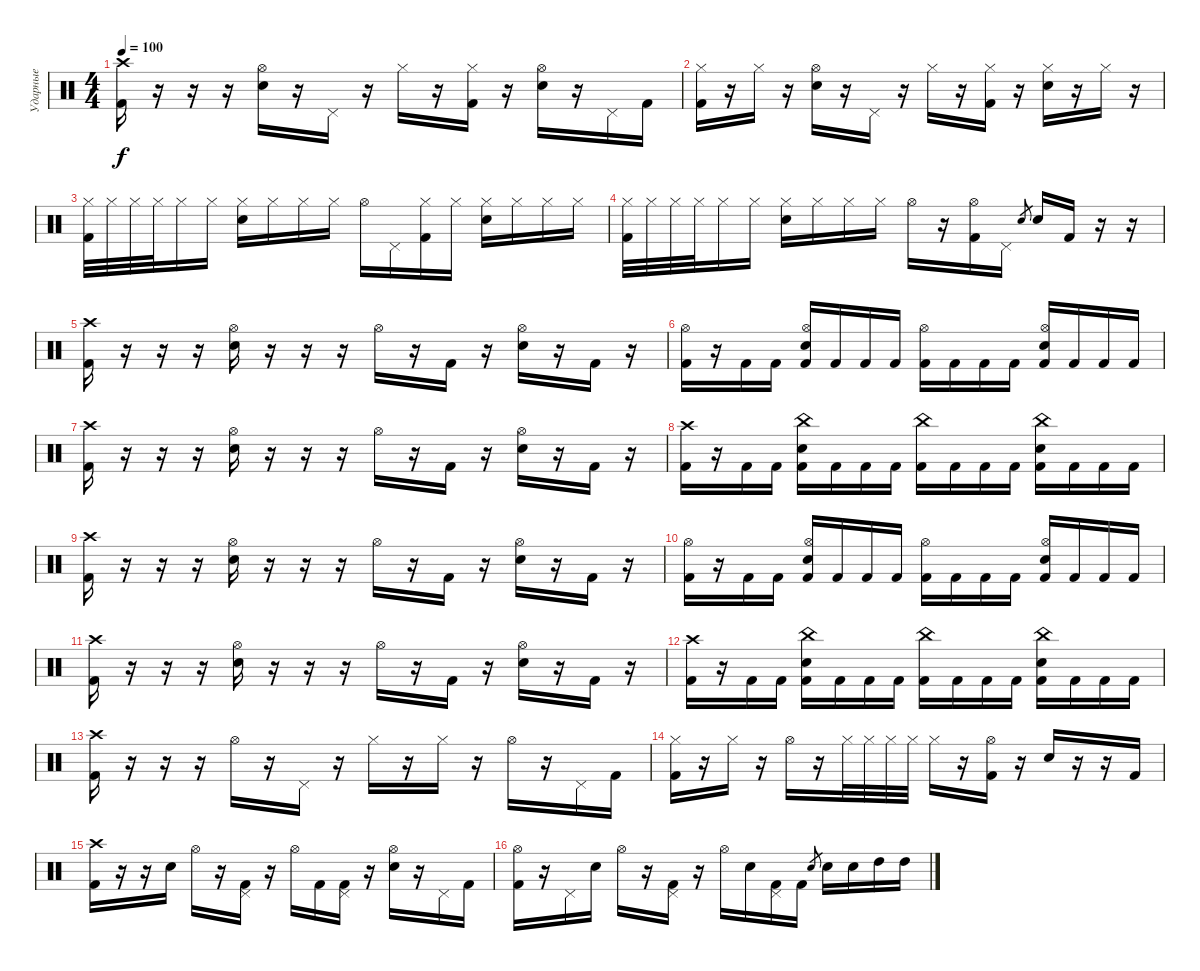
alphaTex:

\track ("Ударные" "Ударные") {instrument percussion}
\staff {score}
\articulation defaults
\ts (4 4)
\tempo 100
\clef neutral
\ks c
("Crash high (hit)" "Kick (hit) 2").16{dy f} r.16 r.16 r.16 ("Hi-Hat (open)" "Electric Snare (hit)").16 r.16 "Pedal Hi-Hat (hit)".16 r.16 "Hi-Hat (closed)".16 r.16 ("Hi-Hat (closed)" "Kick (hit) 2").16 r.16 ("Hi-Hat (open)" "Electric Snare (hit)").16 r.16 "Pedal Hi-Hat (hit)".16 "Kick (hit) 2".16 |
("Hi-Hat (closed)" "Kick (hit) 2").16 r.16 "Hi-Hat (closed)".16 r.16 ("Hi-Hat (open)" "Electric Snare (hit)").16 r.16 "Pedal Hi-Hat (hit)".16 r.16 "Hi-Hat (closed)".16 r.16 ("Hi-Hat (closed)" "Kick (hit) 2").16 r.16 ("Hi-Hat (closed)" "Electric Snare (hit)").16 r.16 "Hi-Hat (closed)".16 r.16 |
("Hi-Hat (closed)" "Kick (hit) 2").32 "Hi-Hat (closed)".32 "Hi-Hat (closed)".32 "Hi-Hat (closed)".32 "Hi-Hat (closed)".16 "Hi-Hat (closed)".16 ("Hi-Hat (closed)" "Electric Snare (hit)").16 "Hi-Hat (closed)".16 "Hi-Hat (closed)".16 "Hi-Hat (closed)".16 "Hi-Hat (open)".16 "Pedal Hi-Hat (hit)".16 ("Hi-Hat (closed)" "Kick (hit) 2").16 "Hi-Hat (closed)".16 ("Hi-Hat (closed)" "Electric Snare (hit)").16 "Hi-Hat (closed)".16 "Hi-Hat (closed)".16 "Hi-Hat (closed)".16 |
("Hi-Hat (closed)" "Kick (hit) 2").32 "Hi-Hat (closed)".32 "Hi-Hat (closed)".32 "Hi-Hat (closed)".32 "Hi-Hat (closed)".16 "Hi-Hat (closed)".16 ("Hi-Hat (closed)" "Electric Snare (hit)").16 "Hi-Hat (closed)".16 "Hi-Hat (closed)".16 "Hi-Hat (closed)".16 "Hi-Hat (open)".16 r.16 ("Hi-Hat (open)" "Kick (hit) 2").16 "Pedal Hi-Hat (hit)".16 "Electric Snare (hit)".8{gr} "Electric Snare (hit)".16 "Kick (hit) 2".16 r.16 r.16 |
("Crash high (hit)" "Kick (hit) 2").16 r.16 r.16 r.16 ("Hi-Hat (open)" "Electric Snare (hit)").16 r.16 r.16 r.16 "Hi-Hat (open)".16 r.16 "Kick (hit) 2".16 r.16 ("Hi-Hat (open)" "Electric Snare (hit)").16 r.16 "Kick (hit) 2".16 r.16 |
("Hi-Hat (open)" "Kick (hit) 2").16 r.16 "Kick (hit) 2".16 "Kick (hit) 2".16 ("Hi-Hat (open)" "Electric Snare (hit)" "Kick (hit) 2").16 "Kick (hit) 2".16 "Kick (hit) 2".16 "Kick (hit) 2".16 ("Hi-Hat (open)" "Kick (hit) 2").16 "Kick (hit) 2".16 "Kick (hit) 2".16 "Kick (hit) 2".16 ("Hi-Hat (open)" "Electric Snare (hit)" "Kick (hit) 2").16 "Kick (hit) 2".16 "Kick (hit) 2".16 "Kick (hit) 2".16 |
("Crash high (hit)" "Kick (hit) 2").16 r.16 r.16 r.16 ("Hi-Hat (open)" "Electric Snare (hit)").16 r.16 r.16 r.16 "Hi-Hat (open)".16 r.16 "Kick (hit) 2".16 r.16 ("Hi-Hat (open)" "Electric Snare (hit)").16 r.16 "Kick (hit) 2".16 r.16 |
("Crash high (hit)" "Kick (hit) 2").16 r.16 "Kick (hit) 2".16 "Kick (hit) 2".16 ("China (hit)" "Electric Snare (hit)" "Kick (hit) 2").16 "Kick (hit) 2".16 "Kick (hit) 2".16 "Kick (hit) 2".16 ("China (hit)" "Kick (hit) 2").16 "Kick (hit) 2".16 "Kick (hit) 2".16 "Kick (hit) 2".16 ("China (hit)" "Electric Snare (hit)" "Kick (hit) 2").16 "Kick (hit) 2".16 "Kick (hit) 2".16 "Kick (hit) 2".16 |
("Crash high (hit)" "Kick (hit) 2").16 r.16 r.16 r.16 ("Hi-Hat (open)" "Electric Snare (hit)").16 r.16 r.16 r.16 "Hi-Hat (open)".16 r.16 "Kick (hit) 2".16 r.16 ("Hi-Hat (open)" "Electric Snare (hit)").16 r.16 "Kick (hit) 2".16 r.16 |
("Hi-Hat (open)" "Kick (hit) 2").16 r.16 "Kick (hit) 2".16 "Kick (hit) 2".16 ("Hi-Hat (open)" "Electric Snare (hit)" "Kick (hit) 2").16 "Kick (hit) 2".16 "Kick (hit) 2".16 "Kick (hit) 2".16 ("Hi-Hat (open)" "Kick (hit) 2").16 "Kick (hit) 2".16 "Kick (hit) 2".16 "Kick (hit) 2".16 ("Hi-Hat (open)" "Electric Snare (hit)" "Kick (hit) 2").16 "Kick (hit) 2".16 "Kick (hit) 2".16 "Kick (hit) 2".16 |
("Crash high (hit)" "Kick (hit) 2").16 r.16 r.16 r.16 ("Hi-Hat (open)" "Electric Snare (hit)").16 r.16 r.16 r.16 "Hi-Hat (open)".16 r.16 "Kick (hit) 2".16 r.16 ("Hi-Hat (open)" "Electric Snare (hit)").16 r.16 "Kick (hit) 2".16 r.16 |
("Crash high (hit)" "Kick (hit) 2").16 r.16 "Kick (hit) 2".16 "Kick (hit) 2".16 ("China (hit)" "Electric Snare (hit)" "Kick (hit) 2").16 "Kick (hit) 2".16 "Kick (hit) 2".16 "Kick (hit) 2".16 ("China (hit)" "Kick (hit) 2").16 "Kick (hit) 2".16 "Kick (hit) 2".16 "Kick (hit) 2".16 ("China (hit)" "Electric Snare (hit)" "Kick (hit) 2").16 "Kick (hit) 2".16 "Kick (hit) 2".16 "Kick (hit) 2".16 |
("Crash high (hit)" "Kick (hit) 2").16 r.16 r.16 r.16 "Hi-Hat (open)".16 r.16 "Pedal Hi-Hat (hit)".16 r.16 "Hi-Hat (closed)".16 r.16 "Hi-Hat (closed)".16 r.16 "Hi-Hat (open)".16 r.16 "Pedal Hi-Hat (hit)".16 "Kick (hit) 2".16 |
("Hi-Hat (closed)" "Kick (hit) 2").16 r.16 "Hi-Hat (closed)".16 r.16 "Hi-Hat (open)".16 r.16 "Hi-Hat (closed)".32 "Hi-Hat (closed)".32 "Hi-Hat (closed)".32 "Hi-Hat (closed)".32 "Hi-Hat (closed)".16 r.16 ("Hi-Hat (open)" "Kick (hit) 2").16 r.16 "Electric Snare (hit)".16 r.16 r.16 "Kick (hit) 2".16 |
("Crash high (hit)" "Kick (hit) 2").16 r.16 r.16 "Electric Snare (hit)".16 "Hi-Hat (open)".16 r.16 ("Pedal Hi-Hat (hit)" "Kick (hit) 2").16 r.16 "Hi-Hat (open)".16 "Kick (hit) 2".16 ("Pedal Hi-Hat (hit)" "Kick (hit) 2").16 r.16 ("Hi-Hat (open)" "Electric Snare (hit)").16 r.16 "Pedal Hi-Hat (hit)".16 "Kick (hit) 2".16 |
("Hi-Hat (open)" "Kick (hit) 2").16 r.16 "Pedal Hi-Hat (hit)".16 "Electric Snare (hit)".16 "Hi-Hat (open)".16 r.16 ("Pedal Hi-Hat (hit)" "Kick (hit) 2").16 r.16 "Hi-Hat (open)".16 "Electric Snare (hit)".16 ("Pedal Hi-Hat (hit)" "Kick (hit) 2").16 "Kick (hit) 2".16 "Electric Snare (hit)".8{gr} "Electric Snare (hit)".16 "Electric Snare (hit)".16 "High Tom (hit)".16 "High Tom (hit)".16
